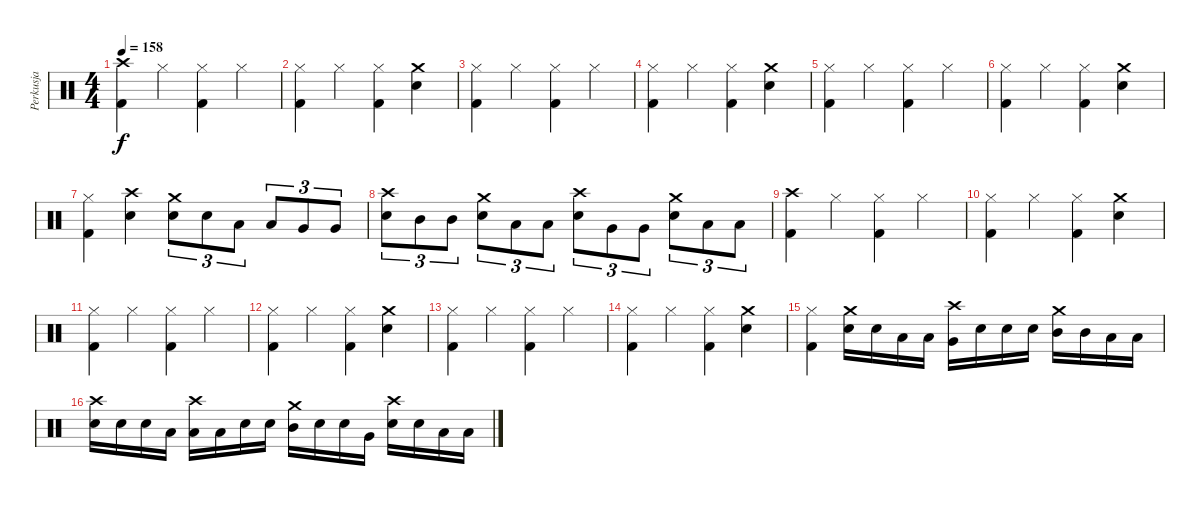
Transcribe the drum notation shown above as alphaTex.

\track ("Perkusja" "Perkusja") {instrument percussion}
\staff {score}
\articulation defaults
\ts (4 4)
\tempo 158
\clef neutral
\ks c
("Crash high (hit)" "Kick (hit) 2").4{dy f} "Hi-Hat (closed)".4 ("Hi-Hat (closed)" "Kick (hit) 2").4 "Hi-Hat (closed)".4 |
("Hi-Hat (closed)" "Kick (hit) 2").4 "Hi-Hat (closed)".4 ("Hi-Hat (closed)" "Kick (hit) 2").4 ("Crash medium (hit)" "Snare (hit) 2").4 |
("Hi-Hat (closed)" "Kick (hit) 2").4 "Hi-Hat (closed)".4 ("Hi-Hat (closed)" "Kick (hit) 2").4 "Hi-Hat (closed)".4 |
("Hi-Hat (closed)" "Kick (hit) 2").4 "Hi-Hat (closed)".4 ("Hi-Hat (closed)" "Kick (hit) 2").4 ("Crash medium (hit)" "Snare (hit) 2").4 |
("Hi-Hat (closed)" "Kick (hit) 2").4 "Hi-Hat (closed)".4 ("Hi-Hat (closed)" "Kick (hit) 2").4 "Hi-Hat (closed)".4 |
("Hi-Hat (closed)" "Kick (hit) 2").4 "Hi-Hat (closed)".4 ("Hi-Hat (closed)" "Kick (hit) 2").4 ("Crash medium (hit)" "Snare (hit) 2").4 |
("Hi-Hat (closed)" "Kick (hit) 2").4 ("Crash high (hit)" "Snare (hit) 2").4 ("Crash medium (hit)" "Snare (hit) 2").8{tu (3 2)} "Snare (hit) 2".8{tu (3 2)} "Low Tom (hit)".8{tu (3 2)} "Low Tom (hit)".8{tu (3 2)} "Very Low Tom (hit)".8{tu (3 2)} "Very Low Tom (hit)".8{tu (3 2)} |
("Crash high (hit)" "Snare (hit) 2").8{tu (3 2)} "Mid Tom (hit)".8{tu (3 2)} "Mid Tom (hit)".8{tu (3 2)} ("Crash medium (hit)" "Snare (hit) 2").8{tu (3 2)} "Low Tom (hit)".8{tu (3 2)} "Low Tom (hit)".8{tu (3 2)} ("Crash high (hit)" "Snare (hit) 2").8{tu (3 2)} "Very Low Tom (hit)".8{tu (3 2)} "Very Low Tom (hit)".8{tu (3 2)} ("Crash medium (hit)" "Snare (hit) 2").8{tu (3 2)} "Low Floor Tom (hit)".8{tu (3 2)} "Low Floor Tom (hit)".8{tu (3 2)} |
("Crash high (hit)" "Kick (hit) 2").4 "Hi-Hat (closed)".4 ("Hi-Hat (closed)" "Kick (hit) 2").4 "Hi-Hat (closed)".4 |
("Hi-Hat (closed)" "Kick (hit) 2").4 "Hi-Hat (closed)".4 ("Hi-Hat (closed)" "Kick (hit) 2").4 ("Crash medium (hit)" "Snare (hit) 2").4 |
("Hi-Hat (closed)" "Kick (hit) 2").4 "Hi-Hat (closed)".4 ("Hi-Hat (closed)" "Kick (hit) 2").4 "Hi-Hat (closed)".4 |
("Hi-Hat (closed)" "Kick (hit) 2").4 "Hi-Hat (closed)".4 ("Hi-Hat (closed)" "Kick (hit) 2").4 ("Crash medium (hit)" "Snare (hit) 2").4 |
("Hi-Hat (closed)" "Kick (hit) 2").4 "Hi-Hat (closed)".4 ("Hi-Hat (closed)" "Kick (hit) 2").4 "Hi-Hat (closed)".4 |
("Hi-Hat (closed)" "Kick (hit) 2").4 "Hi-Hat (closed)".4 ("Hi-Hat (closed)" "Kick (hit) 2").4 ("Crash medium (hit)" "Snare (hit) 2").4 |
("Hi-Hat (closed)" "Kick (hit) 2").4 ("Crash medium (hit)" "Snare (hit) 2").16 "Snare (hit) 2".16 "Low Tom (hit)".16 "Low Tom (hit)".16 ("Crash high (hit)" "Very Low Tom (hit)").16 "Snare (hit) 2".16 "Snare (hit) 2".16 "Snare (hit) 2".16 ("Crash medium (hit)" "Mid Tom (hit)").16 "Mid Tom (hit)".16 "Low Tom (hit)".16 "Low Tom (hit)".16 |
("Crash high (hit)" "Snare (hit) 2").16 "Snare (hit) 2".16 "Snare (hit) 2".16 "Low Tom (hit)".16 ("Crash high (hit)" "Low Tom (hit)").16 "Low Tom (hit)".16 "Snare (hit) 2".16 "Snare (hit) 2".16 ("Crash medium (hit)" "Mid Tom (hit)").16 "Snare (hit) 2".16 "Snare (hit) 2".16 "Very Low Tom (hit)".16 ("Crash high (hit)" "Snare (hit) 2").16 "Snare (hit) 2".16 "Low Tom (hit)".16 "Low Tom (hit)".16
